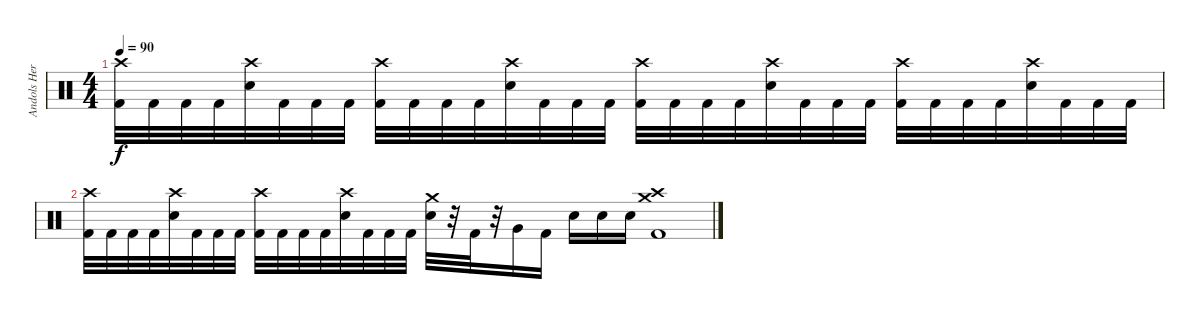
\track ("Andols Herrick" "Andols Her") {instrument percussion}
\staff {score}
\articulation defaults
\ts (4 4)
\tempo 90
\clef neutral
\ks c
("Crash high (hit)" "Kick (hit) 2").32{dy f} "Kick (hit) 2".32 "Kick (hit) 2".32 "Kick (hit) 2".32 ("Crash high (hit)" "Electric Snare (hit)").32 "Kick (hit) 2".32 "Kick (hit) 2".32 "Kick (hit) 2".32 ("Crash high (hit)" "Kick (hit) 2").32 "Kick (hit) 2".32 "Kick (hit) 2".32 "Kick (hit) 2".32 ("Crash high (hit)" "Electric Snare (hit)").32 "Kick (hit) 2".32 "Kick (hit) 2".32 "Kick (hit) 2".32 ("Crash high (hit)" "Kick (hit) 2").32 "Kick (hit) 2".32 "Kick (hit) 2".32 "Kick (hit) 2".32 ("Crash high (hit)" "Electric Snare (hit)").32 "Kick (hit) 2".32 "Kick (hit) 2".32 "Kick (hit) 2".32 ("Crash high (hit)" "Kick (hit) 2").32 "Kick (hit) 2".32 "Kick (hit) 2".32 "Kick (hit) 2".32 ("Crash high (hit)" "Electric Snare (hit)").32 "Kick (hit) 2".32 "Kick (hit) 2".32 "Kick (hit) 2".32 |
("Crash high (hit)" "Kick (hit) 2").32 "Kick (hit) 2".32 "Kick (hit) 2".32 "Kick (hit) 2".32 ("Crash high (hit)" "Electric Snare (hit)").32 "Kick (hit) 2".32 "Kick (hit) 2".32 "Kick (hit) 2".32 ("Crash high (hit)" "Kick (hit) 2").32 "Kick (hit) 2".32 "Kick (hit) 2".32 "Kick (hit) 2".32 ("Crash high (hit)" "Electric Snare (hit)").32 "Kick (hit) 2".32 "Kick (hit) 2".32 "Kick (hit) 2".32 ("Crash medium (hit)" "Electric Snare (hit)").32 r.32 "Kick (hit) 2".32 r.32 "Very Low Tom (hit)".16 "Kick (hit) 2".16 "Electric Snare (hit)".16 "Electric Snare (hit)".16 "Electric Snare (hit)".16 ("Crash medium (hit)" "Crash high (hit)" "Kick (hit) 2").1
